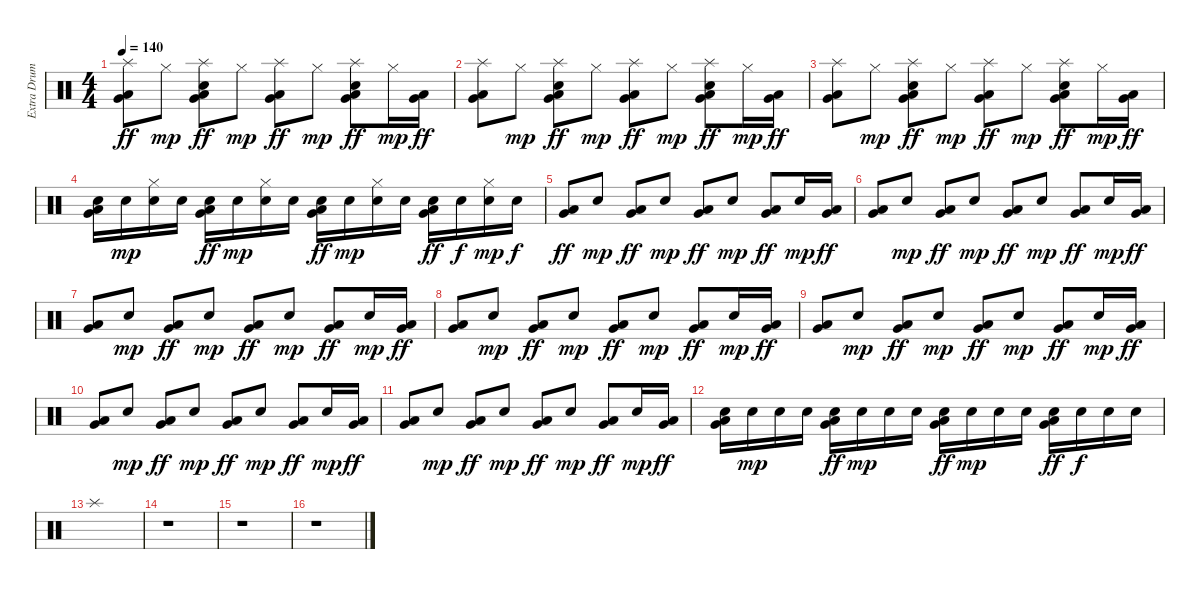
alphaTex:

\track ("Extra Drums" "Extra Drum") {instrument percussion}
\staff {score}
\articulation defaults
\ts (4 4)
\tempo 140
\clef neutral
\ks c
("Splash (hit)" "Low Floor Tom (hit)" "Very Low Tom (hit)").8{dy ff} "Hi-Hat (closed)".8{dy mp} ("Splash (hit)" "Electric Snare (hit)" "Low Floor Tom (hit)" "Very Low Tom (hit)").8{dy ff} "Hi-Hat (closed)".8{dy mp} ("Splash (hit)" "Low Floor Tom (hit)" "Very Low Tom (hit)").8{dy ff} "Hi-Hat (closed)".8{dy mp} ("Splash (hit)" "Electric Snare (hit)" "Low Floor Tom (hit)" "Very Low Tom (hit)").8{dy ff} "Hi-Hat (closed)".16{dy mp} ("Low Floor Tom (hit)" "Very Low Tom (hit)").16{dy ff} |
("Splash (hit)" "Low Floor Tom (hit)" "Very Low Tom (hit)").8 "Hi-Hat (closed)".8{dy mp} ("Splash (hit)" "Electric Snare (hit)" "Low Floor Tom (hit)" "Very Low Tom (hit)").8{dy ff} "Hi-Hat (closed)".8{dy mp} ("Splash (hit)" "Low Floor Tom (hit)" "Very Low Tom (hit)").8{dy ff} "Hi-Hat (closed)".8{dy mp} ("Splash (hit)" "Electric Snare (hit)" "Low Floor Tom (hit)" "Very Low Tom (hit)").8{dy ff} "Hi-Hat (closed)".16{dy mp} ("Low Floor Tom (hit)" "Very Low Tom (hit)").16{dy ff} |
("Splash (hit)" "Low Floor Tom (hit)" "Very Low Tom (hit)").8 "Hi-Hat (closed)".8{dy mp} ("Splash (hit)" "Electric Snare (hit)" "Low Floor Tom (hit)" "Very Low Tom (hit)").8{dy ff} "Hi-Hat (closed)".8{dy mp} ("Splash (hit)" "Low Floor Tom (hit)" "Very Low Tom (hit)").8{dy ff} "Hi-Hat (closed)".8{dy mp} ("Splash (hit)" "Electric Snare (hit)" "Low Floor Tom (hit)" "Very Low Tom (hit)").8{dy ff} "Hi-Hat (closed)".16{dy mp} ("Low Floor Tom (hit)" "Very Low Tom (hit)").16{dy ff} |
("Snare (hit) 2" "Low Floor Tom (hit)" "Very Low Tom (hit)").16 "Snare (hit) 2".16{dy mp} ("Hi-Hat (closed)" "Snare (hit) 2").16 "Snare (hit) 2".16 ("Snare (hit) 2" "Low Floor Tom (hit)" "Very Low Tom (hit)").16{dy ff} "Snare (hit) 2".16{dy mp} ("Hi-Hat (closed)" "Snare (hit) 2").16 "Snare (hit) 2".16 ("Snare (hit) 2" "Low Floor Tom (hit)" "Very Low Tom (hit)").16{dy ff} "Snare (hit) 2".16{dy mp} ("Hi-Hat (closed)" "Snare (hit) 2").16 "Snare (hit) 2".16 ("Snare (hit) 2" "Low Floor Tom (hit)" "Very Low Tom (hit)").16{dy ff} "Snare (hit) 2".16{dy f} ("Hi-Hat (closed)" "Snare (hit) 2").16{dy mp} "Snare (hit) 2".16{dy f} |
("Low Floor Tom (hit)" "Very Low Tom (hit)").8{dy ff} "Snare (hit) 2".8{dy mp} ("Low Floor Tom (hit)" "Very Low Tom (hit)").8{dy ff} "Snare (hit) 2".8{dy mp} ("Low Floor Tom (hit)" "Very Low Tom (hit)").8{dy ff} "Snare (hit) 2".8{dy mp} ("Low Floor Tom (hit)" "Very Low Tom (hit)").8{dy ff} "Snare (hit) 2".16{dy mp} ("Low Floor Tom (hit)" "Very Low Tom (hit)").16{dy ff} |
("Low Floor Tom (hit)" "Very Low Tom (hit)").8 "Snare (hit) 2".8{dy mp} ("Low Floor Tom (hit)" "Very Low Tom (hit)").8{dy ff} "Snare (hit) 2".8{dy mp} ("Low Floor Tom (hit)" "Very Low Tom (hit)").8{dy ff} "Snare (hit) 2".8{dy mp} ("Low Floor Tom (hit)" "Very Low Tom (hit)").8{dy ff} "Snare (hit) 2".16{dy mp} ("Low Floor Tom (hit)" "Very Low Tom (hit)").16{dy ff} |
("Low Floor Tom (hit)" "Very Low Tom (hit)").8 "Snare (hit) 2".8{dy mp} ("Low Floor Tom (hit)" "Very Low Tom (hit)").8{dy ff} "Snare (hit) 2".8{dy mp} ("Low Floor Tom (hit)" "Very Low Tom (hit)").8{dy ff} "Snare (hit) 2".8{dy mp} ("Low Floor Tom (hit)" "Very Low Tom (hit)").8{dy ff} "Snare (hit) 2".16{dy mp} ("Low Floor Tom (hit)" "Very Low Tom (hit)").16{dy ff} |
("Low Floor Tom (hit)" "Very Low Tom (hit)").8 "Snare (hit) 2".8{dy mp} ("Low Floor Tom (hit)" "Very Low Tom (hit)").8{dy ff} "Snare (hit) 2".8{dy mp} ("Low Floor Tom (hit)" "Very Low Tom (hit)").8{dy ff} "Snare (hit) 2".8{dy mp} ("Low Floor Tom (hit)" "Very Low Tom (hit)").8{dy ff} "Snare (hit) 2".16{dy mp} ("Low Floor Tom (hit)" "Very Low Tom (hit)").16{dy ff} |
("Low Floor Tom (hit)" "Very Low Tom (hit)").8 "Snare (hit) 2".8{dy mp} ("Low Floor Tom (hit)" "Very Low Tom (hit)").8{dy ff} "Snare (hit) 2".8{dy mp} ("Low Floor Tom (hit)" "Very Low Tom (hit)").8{dy ff} "Snare (hit) 2".8{dy mp} ("Low Floor Tom (hit)" "Very Low Tom (hit)").8{dy ff} "Snare (hit) 2".16{dy mp} ("Low Floor Tom (hit)" "Very Low Tom (hit)").16{dy ff} |
("Low Floor Tom (hit)" "Very Low Tom (hit)").8 "Snare (hit) 2".8{dy mp} ("Low Floor Tom (hit)" "Very Low Tom (hit)").8{dy ff} "Snare (hit) 2".8{dy mp} ("Low Floor Tom (hit)" "Very Low Tom (hit)").8{dy ff} "Snare (hit) 2".8{dy mp} ("Low Floor Tom (hit)" "Very Low Tom (hit)").8{dy ff} "Snare (hit) 2".16{dy mp} ("Low Floor Tom (hit)" "Very Low Tom (hit)").16{dy ff} |
("Low Floor Tom (hit)" "Very Low Tom (hit)").8 "Snare (hit) 2".8{dy mp} ("Low Floor Tom (hit)" "Very Low Tom (hit)").8{dy ff} "Snare (hit) 2".8{dy mp} ("Low Floor Tom (hit)" "Very Low Tom (hit)").8{dy ff} "Snare (hit) 2".8{dy mp} ("Low Floor Tom (hit)" "Very Low Tom (hit)").8{dy ff} "Snare (hit) 2".16{dy mp} ("Low Floor Tom (hit)" "Very Low Tom (hit)").16{dy ff} |
("Snare (hit) 2" "Low Floor Tom (hit)" "Very Low Tom (hit)").16 "Snare (hit) 2".16{dy mp} "Snare (hit) 2".16 "Snare (hit) 2".16 ("Snare (hit) 2" "Low Floor Tom (hit)" "Very Low Tom (hit)").16{dy ff} "Snare (hit) 2".16{dy mp} "Snare (hit) 2".16 "Snare (hit) 2".16 ("Snare (hit) 2" "Low Floor Tom (hit)" "Very Low Tom (hit)").16{dy ff} "Snare (hit) 2".16{dy mp} "Snare (hit) 2".16 "Snare (hit) 2".16 ("Snare (hit) 2" "Low Floor Tom (hit)" "Very Low Tom (hit)").16{dy ff} "Snare (hit) 2".16{dy f} "Snare (hit) 2".16 "Snare (hit) 2".16 |
"Splash (hit)".1 |
r.1 |
r.1 |
r.1
